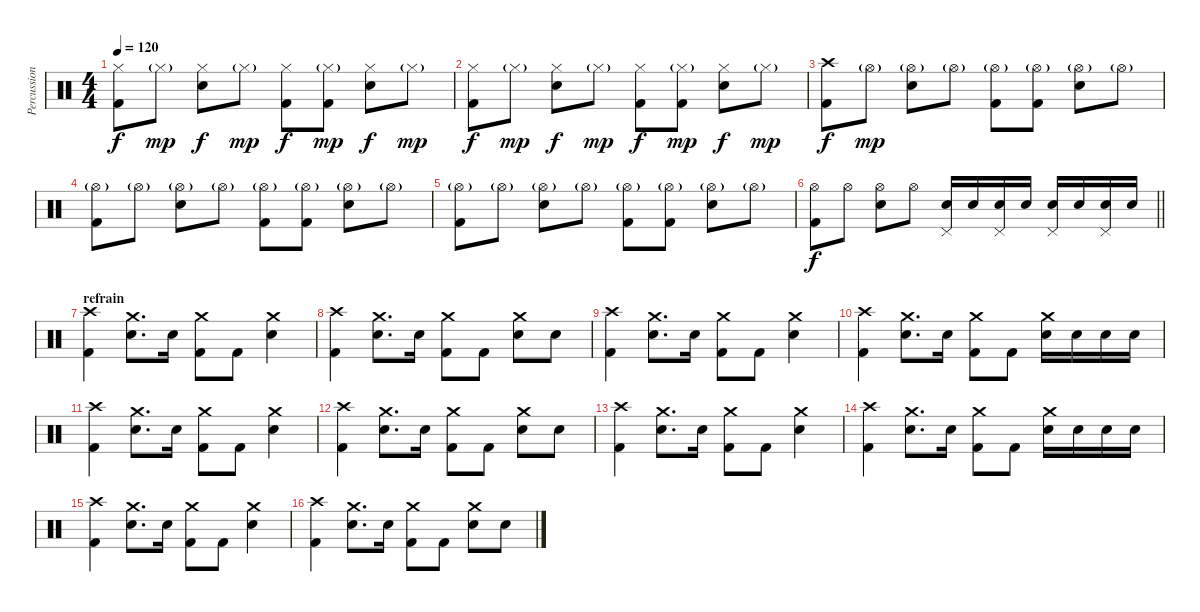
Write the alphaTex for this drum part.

\track ("Percussions" "Percussion") {instrument percussion}
\staff {score}
\articulation defaults
\ts (4 4)
\tempo 120
\clef neutral
\ks c
("Hi-Hat (closed)" "Kick (hit) 2").8{dy f} "Hi-Hat (closed)"{g}.8{dy mp} ("Hi-Hat (closed)" "Snare (hit) 2").8{dy f} "Hi-Hat (closed)"{g}.8{dy mp} ("Hi-Hat (closed)" "Kick (hit) 2").8{dy f} ("Hi-Hat (closed)"{g} "Kick (hit) 2").8{dy mp} ("Hi-Hat (closed)" "Snare (hit) 2").8{dy f} "Hi-Hat (closed)"{g}.8{dy mp} |
("Hi-Hat (closed)" "Kick (hit) 2").8{dy f} "Hi-Hat (closed)"{g}.8{dy mp} ("Hi-Hat (closed)" "Snare (hit) 2").8{dy f} "Hi-Hat (closed)"{g}.8{dy mp} ("Hi-Hat (closed)" "Kick (hit) 2").8{dy f} ("Hi-Hat (closed)"{g} "Kick (hit) 2").8{dy mp} ("Hi-Hat (closed)" "Snare (hit) 2").8{dy f} "Hi-Hat (closed)"{g}.8{dy mp} |
("Crash high (hit)" "Kick (hit) 2").8{dy f} "Hi-Hat (open)"{g}.8{dy mp} ("Hi-Hat (open)"{g} "Snare (hit) 2").8 "Hi-Hat (open)"{g}.8 ("Hi-Hat (open)"{g} "Kick (hit) 2").8 ("Hi-Hat (open)"{g} "Kick (hit) 2").8 ("Hi-Hat (open)"{g} "Snare (hit) 2").8 "Hi-Hat (open)"{g}.8 |
("Hi-Hat (open)"{g} "Kick (hit) 2").8 "Hi-Hat (open)"{g}.8 ("Hi-Hat (open)"{g} "Snare (hit) 2").8 "Hi-Hat (open)"{g}.8 ("Hi-Hat (open)"{g} "Kick (hit) 2").8 ("Hi-Hat (open)"{g} "Kick (hit) 2").8 ("Hi-Hat (open)"{g} "Snare (hit) 2").8 "Hi-Hat (open)"{g}.8 |
("Hi-Hat (open)"{g} "Kick (hit) 2").8 "Hi-Hat (open)"{g}.8 ("Hi-Hat (open)"{g} "Snare (hit) 2").8 "Hi-Hat (open)"{g}.8 ("Hi-Hat (open)"{g} "Kick (hit) 2").8 ("Hi-Hat (open)"{g} "Kick (hit) 2").8 ("Hi-Hat (open)"{g} "Snare (hit) 2").8 "Hi-Hat (open)"{g}.8 |
\barLineRight lightlight
("Hi-Hat (open)" "Kick (hit) 2").8{dy f} "Hi-Hat (open)".8 ("Hi-Hat (open)" "Snare (hit) 2").8 "Hi-Hat (open)".8 ("Pedal Hi-Hat (hit)" "Snare (hit) 2").16 "Snare (hit) 2".16 ("Pedal Hi-Hat (hit)" "Snare (hit) 2").16 "Snare (hit) 2".16 ("Pedal Hi-Hat (hit)" "Snare (hit) 2").16 "Snare (hit) 2".16 ("Pedal Hi-Hat (hit)" "Snare (hit) 2").16 "Snare (hit) 2".16 |
\section ("" "refrain")
("Crash high (hit)" "Kick (hit) 2").4 ("Crash medium (hit)" "Snare (hit) 2").8{d} "Snare (hit) 2".16 ("Crash medium (hit)" "Kick (hit) 2").8 "Kick (hit) 2".8 ("Crash medium (hit)" "Snare (hit) 2").4 |
("Crash high (hit)" "Kick (hit) 2").4 ("Crash medium (hit)" "Snare (hit) 2").8{d} "Snare (hit) 2".16 ("Crash medium (hit)" "Kick (hit) 2").8 "Kick (hit) 2".8 ("Crash medium (hit)" "Snare (hit) 2").8 "Snare (hit) 2".8 |
("Crash high (hit)" "Kick (hit) 2").4 ("Crash medium (hit)" "Snare (hit) 2").8{d} "Snare (hit) 2".16 ("Crash medium (hit)" "Kick (hit) 2").8 "Kick (hit) 2".8 ("Crash medium (hit)" "Snare (hit) 2").4 |
("Crash high (hit)" "Kick (hit) 2").4 ("Crash medium (hit)" "Snare (hit) 2").8{d} "Snare (hit) 2".16 ("Crash medium (hit)" "Kick (hit) 2").8 "Kick (hit) 2".8 ("Crash medium (hit)" "Snare (hit) 2").16 "Snare (hit) 2".16 "Snare (hit) 2".16 "Snare (hit) 2".16 |
("Crash high (hit)" "Kick (hit) 2").4 ("Crash medium (hit)" "Snare (hit) 2").8{d} "Snare (hit) 2".16 ("Crash medium (hit)" "Kick (hit) 2").8 "Kick (hit) 2".8 ("Crash medium (hit)" "Snare (hit) 2").4 |
("Crash high (hit)" "Kick (hit) 2").4 ("Crash medium (hit)" "Snare (hit) 2").8{d} "Snare (hit) 2".16 ("Crash medium (hit)" "Kick (hit) 2").8 "Kick (hit) 2".8 ("Crash medium (hit)" "Snare (hit) 2").8 "Snare (hit) 2".8 |
("Crash high (hit)" "Kick (hit) 2").4 ("Crash medium (hit)" "Snare (hit) 2").8{d} "Snare (hit) 2".16 ("Crash medium (hit)" "Kick (hit) 2").8 "Kick (hit) 2".8 ("Crash medium (hit)" "Snare (hit) 2").4 |
("Crash high (hit)" "Kick (hit) 2").4 ("Crash medium (hit)" "Snare (hit) 2").8{d} "Snare (hit) 2".16 ("Crash medium (hit)" "Kick (hit) 2").8 "Kick (hit) 2".8 ("Crash medium (hit)" "Snare (hit) 2").16 "Snare (hit) 2".16 "Snare (hit) 2".16 "Snare (hit) 2".16 |
("Crash high (hit)" "Kick (hit) 2").4 ("Crash medium (hit)" "Snare (hit) 2").8{d} "Snare (hit) 2".16 ("Crash medium (hit)" "Kick (hit) 2").8 "Kick (hit) 2".8 ("Crash medium (hit)" "Snare (hit) 2").4 |
("Crash high (hit)" "Kick (hit) 2").4 ("Crash medium (hit)" "Snare (hit) 2").8{d} "Snare (hit) 2".16 ("Crash medium (hit)" "Kick (hit) 2").8 "Kick (hit) 2".8 ("Crash medium (hit)" "Snare (hit) 2").8 "Snare (hit) 2".8
